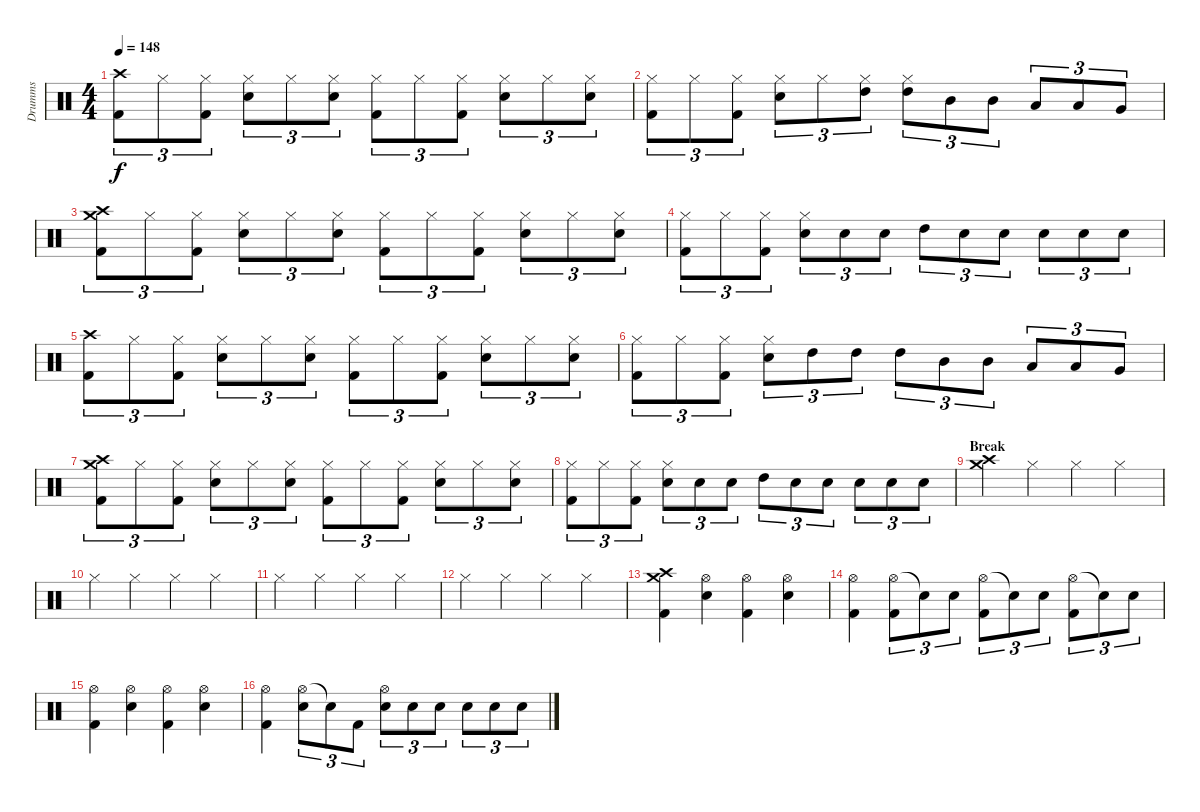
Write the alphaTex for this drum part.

\track ("Drumms" "Drumms") {instrument percussion}
\staff {score}
\articulation defaults
\ts (4 4)
\tempo 148
\clef neutral
\ks c
("Crash high (hit)" "Kick (hit) 2").8{tu (3 2) dy f} "Hi-Hat (closed)".8{tu (3 2)} ("Hi-Hat (closed)" "Kick (hit) 2").8{tu (3 2)} ("Hi-Hat (closed)" "Snare (hit) 2").8{tu (3 2)} "Hi-Hat (closed)".8{tu (3 2)} ("Hi-Hat (closed)" "Snare (hit) 2").8{tu (3 2)} ("Hi-Hat (closed)" "Kick (hit) 2").8{tu (3 2)} "Hi-Hat (closed)".8{tu (3 2)} ("Hi-Hat (closed)" "Kick (hit) 2").8{tu (3 2)} ("Hi-Hat (closed)" "Snare (hit) 2").8{tu (3 2)} "Hi-Hat (closed)".8{tu (3 2)} ("Hi-Hat (closed)" "Snare (hit) 2").8{tu (3 2)} |
("Hi-Hat (closed)" "Kick (hit) 2").8{tu (3 2)} "Hi-Hat (closed)".8{tu (3 2)} ("Hi-Hat (closed)" "Kick (hit) 2").8{tu (3 2)} ("Hi-Hat (closed)" "Snare (hit) 2").8{tu (3 2)} "Hi-Hat (closed)".8{tu (3 2)} ("Hi-Hat (closed)" "High Tom (hit)").8{tu (3 2)} ("Hi-Hat (closed)" "High Tom (hit)").8{tu (3 2)} "Mid Tom (hit)".8{tu (3 2)} "Mid Tom (hit)".8{tu (3 2)} "Low Tom (hit)".8{tu (3 2)} "Low Tom (hit)".8{tu (3 2)} "Very Low Tom (hit)".8{tu (3 2)} |
("Crash high (hit)" "Crash medium (hit)" "Kick (hit) 2").8{tu (3 2)} "Hi-Hat (closed)".8{tu (3 2)} ("Hi-Hat (closed)" "Kick (hit) 2").8{tu (3 2)} ("Hi-Hat (closed)" "Snare (hit) 2").8{tu (3 2)} "Hi-Hat (closed)".8{tu (3 2)} ("Hi-Hat (closed)" "Snare (hit) 2").8{tu (3 2)} ("Hi-Hat (closed)" "Kick (hit) 2").8{tu (3 2)} "Hi-Hat (closed)".8{tu (3 2)} ("Hi-Hat (closed)" "Kick (hit) 2").8{tu (3 2)} ("Hi-Hat (closed)" "Snare (hit) 2").8{tu (3 2)} "Hi-Hat (closed)".8{tu (3 2)} ("Hi-Hat (closed)" "Snare (hit) 2").8{tu (3 2)} |
("Hi-Hat (closed)" "Kick (hit) 2").8{tu (3 2)} "Hi-Hat (closed)".8{tu (3 2)} ("Hi-Hat (closed)" "Kick (hit) 2").8{tu (3 2)} ("Hi-Hat (closed)" "Snare (hit) 2").8{tu (3 2)} "Snare (hit) 2".8{tu (3 2)} "Snare (hit) 2".8{tu (3 2)} "High Tom (hit)".8{tu (3 2)} "Snare (hit) 2".8{tu (3 2)} "Snare (hit) 2".8{tu (3 2)} "Snare (hit) 2".8{tu (3 2)} "Snare (hit) 2".8{tu (3 2)} "Snare (hit) 2".8{tu (3 2)} |
("Crash high (hit)" "Kick (hit) 2").8{tu (3 2)} "Hi-Hat (closed)".8{tu (3 2)} ("Hi-Hat (closed)" "Kick (hit) 2").8{tu (3 2)} ("Hi-Hat (closed)" "Snare (hit) 2").8{tu (3 2)} "Hi-Hat (closed)".8{tu (3 2)} ("Hi-Hat (closed)" "Snare (hit) 2").8{tu (3 2)} ("Hi-Hat (closed)" "Kick (hit) 2").8{tu (3 2)} "Hi-Hat (closed)".8{tu (3 2)} ("Hi-Hat (closed)" "Kick (hit) 2").8{tu (3 2)} ("Hi-Hat (closed)" "Snare (hit) 2").8{tu (3 2)} "Hi-Hat (closed)".8{tu (3 2)} ("Hi-Hat (closed)" "Snare (hit) 2").8{tu (3 2)} |
("Hi-Hat (closed)" "Kick (hit) 2").8{tu (3 2)} "Hi-Hat (closed)".8{tu (3 2)} ("Hi-Hat (closed)" "Kick (hit) 2").8{tu (3 2)} ("Hi-Hat (closed)" "Snare (hit) 2").8{tu (3 2)} "High Tom (hit)".8{tu (3 2)} "High Tom (hit)".8{tu (3 2)} "High Tom (hit)".8{tu (3 2)} "Mid Tom (hit)".8{tu (3 2)} "Mid Tom (hit)".8{tu (3 2)} "Low Tom (hit)".8{tu (3 2)} "Low Tom (hit)".8{tu (3 2)} "Very Low Tom (hit)".8{tu (3 2)} |
("Crash high (hit)" "Crash medium (hit)" "Kick (hit) 2").8{tu (3 2)} "Hi-Hat (closed)".8{tu (3 2)} ("Hi-Hat (closed)" "Kick (hit) 2").8{tu (3 2)} ("Hi-Hat (closed)" "Snare (hit) 2").8{tu (3 2)} "Hi-Hat (closed)".8{tu (3 2)} ("Hi-Hat (closed)" "Snare (hit) 2").8{tu (3 2)} ("Hi-Hat (closed)" "Kick (hit) 2").8{tu (3 2)} "Hi-Hat (closed)".8{tu (3 2)} ("Hi-Hat (closed)" "Kick (hit) 2").8{tu (3 2)} ("Hi-Hat (closed)" "Snare (hit) 2").8{tu (3 2)} "Hi-Hat (closed)".8{tu (3 2)} ("Hi-Hat (closed)" "Snare (hit) 2").8{tu (3 2)} |
("Hi-Hat (closed)" "Kick (hit) 2").8{tu (3 2)} "Hi-Hat (closed)".8{tu (3 2)} ("Hi-Hat (closed)" "Kick (hit) 2").8{tu (3 2)} ("Hi-Hat (closed)" "Snare (hit) 2").8{tu (3 2)} "Snare (hit) 2".8{tu (3 2)} "Snare (hit) 2".8{tu (3 2)} "High Tom (hit)".8{tu (3 2)} "Snare (hit) 2".8{tu (3 2)} "Snare (hit) 2".8{tu (3 2)} "Snare (hit) 2".8{tu (3 2)} "Snare (hit) 2".8{tu (3 2)} "Snare (hit) 2".8{tu (3 2)} |
\section ("" "Break")
("Crash medium (hit)" "Crash high (hit)").4 "Hi-Hat (closed)".4 "Hi-Hat (closed)".4 "Hi-Hat (closed)".4 |
"Hi-Hat (closed)".4 "Hi-Hat (closed)".4 "Hi-Hat (closed)".4 "Hi-Hat (closed)".4 |
"Hi-Hat (closed)".4 "Hi-Hat (closed)".4 "Hi-Hat (closed)".4 "Hi-Hat (closed)".4 |
"Hi-Hat (closed)".4 "Hi-Hat (closed)".4 "Hi-Hat (closed)".4 "Hi-Hat (closed)".4 |
("Crash high (hit)" "Crash medium (hit)" "Kick (hit) 2").4 ("Hi-Hat (open)" "Snare (hit) 2").4 ("Hi-Hat (open)" "Kick (hit) 2").4 ("Hi-Hat (open)" "Snare (hit) 2").4 |
("Hi-Hat (open)" "Kick (hit) 2").4 ("Hi-Hat (open)" "Kick (hit) 2").8{tu (3 2)} "Snare (hit)"{t}.8{tu (3 2)} "Snare (hit) 2".8{tu (3 2)} ("Hi-Hat (open)" "Kick (hit) 2").8{tu (3 2)} "Snare (hit)"{t}.8{tu (3 2)} "Snare (hit) 2".8{tu (3 2)} ("Hi-Hat (open)" "Kick (hit) 2").8{tu (3 2)} "Snare (hit) 2"{t}.8{tu (3 2)} "Snare (hit) 2".8{tu (3 2)} |
("Hi-Hat (open)" "Kick (hit) 2").4 ("Hi-Hat (open)" "Snare (hit) 2").4 ("Hi-Hat (open)" "Kick (hit) 2").4 ("Hi-Hat (open)" "Snare (hit) 2").4 |
("Hi-Hat (open)" "Kick (hit) 2").4 ("Hi-Hat (open)" "Snare (hit) 2").8{tu (3 2)} "Snare (hit)"{t}.8{tu (3 2)} "Kick (hit) 2".8{tu (3 2)} ("Hi-Hat (open)" "Snare (hit) 2").8{tu (3 2)} "Snare (hit) 2".8{tu (3 2)} "Snare (hit) 2".8{tu (3 2)} "Snare (hit) 2".8{tu (3 2)} "Snare (hit) 2".8{tu (3 2)} "Snare (hit) 2".8{tu (3 2)}
